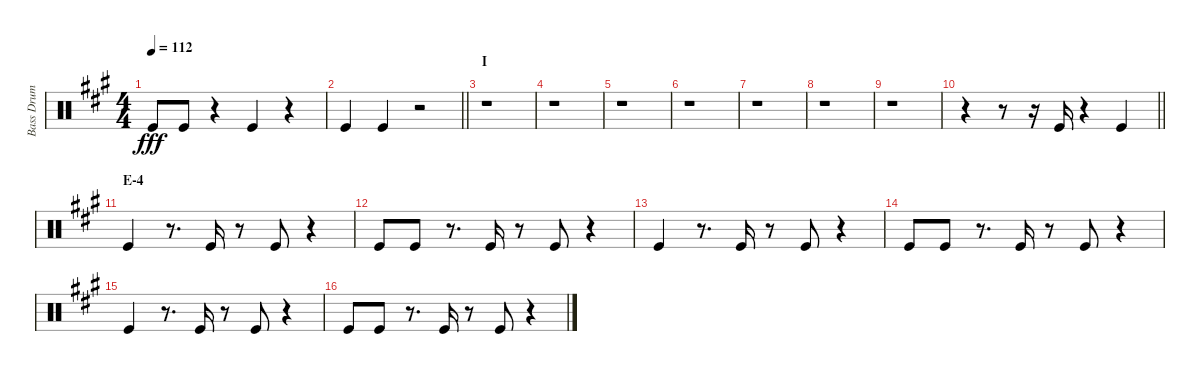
\track ("Bass Drum" "Bass Drum") {instrument percussion}
\staff {score}
\articulation defaults
\ts (4 4)
\tempo 112
\clef neutral
\ks a "Kick (hit)".8{dy fff} "Kick (hit)".8
r.4 "Kick (hit)".4 r.4 |
\barLineRight lightlight "Kick (hit)".4 "Kick (hit)".4
r.2 |
\section ("" "I")
r.1 |
r.1 |
r.1 |
r.1 |
r.1 |
r.1 |
r.1 |
\barLineRight lightlight
r.4 r.8 r.16 "Kick (hit)".16 r.4 "Kick (hit)".4 |
\section ("" "E-4")
"Kick (hit)".4 r.8{d} "Kick (hit)".16 r.8 "Kick (hit)".8 r.4 |
"Kick (hit)".8 "Kick (hit)".8 r.8{d} "Kick (hit)".16 r.8 "Kick (hit)".8 r.4 |
"Kick (hit)".4 r.8{d} "Kick (hit)".16 r.8 "Kick (hit)".8 r.4 |
"Kick (hit)".8 "Kick (hit)".8 r.8{d} "Kick (hit)".16 r.8 "Kick (hit)".8 r.4 |
"Kick (hit)".4 r.8{d} "Kick (hit)".16 r.8 "Kick (hit)".8 r.4 |
"Kick (hit)".8 "Kick (hit)".8 r.8{d} "Kick (hit)".16 r.8 "Kick (hit)".8 r.4
